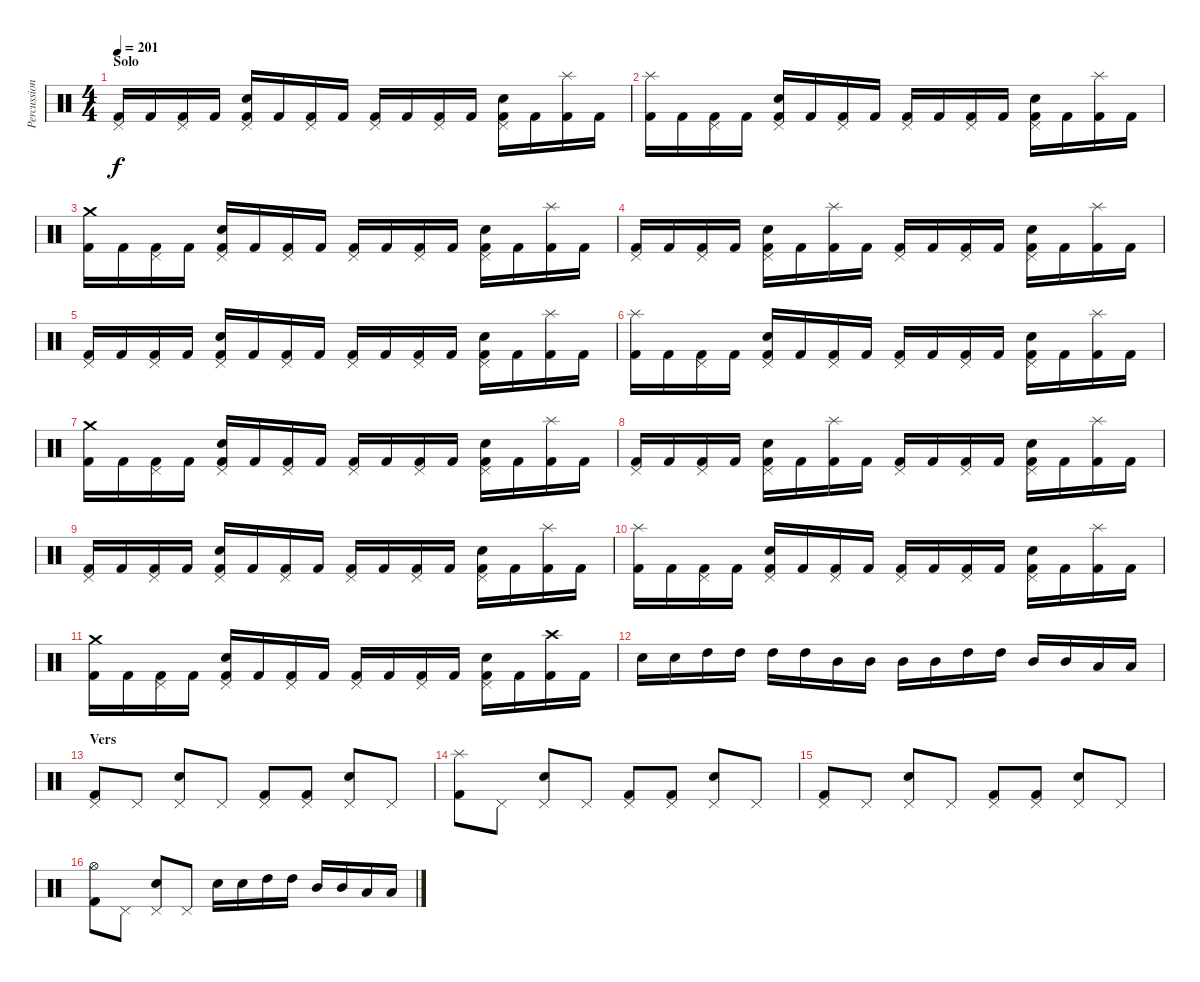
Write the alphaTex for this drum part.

\track ("Percussion" "Percussion") {instrument percussion}
\staff {score}
\articulation defaults
\ts (4 4)
\section ("" "Solo")
\tempo 201
\clef neutral
\ks c
("Pedal Hi-Hat (hit)" "Kick (hit) 2").16{dy f} "Kick (hit) 2".16 ("Pedal Hi-Hat (hit)" "Kick (hit) 2").16 "Kick (hit) 2".16 ("Pedal Hi-Hat (hit)" "Snare (hit) 2" "Kick (hit) 2").16 "Kick (hit) 2".16 ("Pedal Hi-Hat (hit)" "Kick (hit) 2").16 "Kick (hit) 2".16 ("Pedal Hi-Hat (hit)" "Kick (hit) 2").16 "Kick (hit) 2".16 ("Pedal Hi-Hat (hit)" "Kick (hit) 2").16 "Kick (hit) 2".16 ("Pedal Hi-Hat (hit)" "Snare (hit) 2" "Kick (hit) 2").16 "Kick (hit) 2".16 ("Splash (hit)" "Kick (hit) 2").16 "Kick (hit) 2".16 |
("Splash (hit)" "Kick (hit) 2").16 "Kick (hit) 2".16 ("Pedal Hi-Hat (hit)" "Kick (hit) 2").16 "Kick (hit) 2".16 ("Pedal Hi-Hat (hit)" "Snare (hit) 2" "Kick (hit) 2").16 "Kick (hit) 2".16 ("Pedal Hi-Hat (hit)" "Kick (hit) 2").16 "Kick (hit) 2".16 ("Pedal Hi-Hat (hit)" "Kick (hit) 2").16 "Kick (hit) 2".16 ("Pedal Hi-Hat (hit)" "Kick (hit) 2").16 "Kick (hit) 2".16 ("Pedal Hi-Hat (hit)" "Snare (hit) 2" "Kick (hit) 2").16 "Kick (hit) 2".16 ("Splash (hit)" "Kick (hit) 2").16 "Kick (hit) 2".16 |
("Crash medium (hit)" "Kick (hit) 2").16 "Kick (hit) 2".16 ("Pedal Hi-Hat (hit)" "Kick (hit) 2").16 "Kick (hit) 2".16 ("Pedal Hi-Hat (hit)" "Snare (hit) 2" "Kick (hit) 2").16 "Kick (hit) 2".16 ("Pedal Hi-Hat (hit)" "Kick (hit) 2").16 "Kick (hit) 2".16 ("Pedal Hi-Hat (hit)" "Kick (hit) 2").16 "Kick (hit) 2".16 ("Pedal Hi-Hat (hit)" "Kick (hit) 2").16 "Kick (hit) 2".16 ("Pedal Hi-Hat (hit)" "Snare (hit) 2" "Kick (hit) 2").16 "Kick (hit) 2".16 ("Splash (hit)" "Kick (hit) 2").16 "Kick (hit) 2".16 |
("Pedal Hi-Hat (hit)" "Kick (hit) 2").16 "Kick (hit) 2".16 ("Pedal Hi-Hat (hit)" "Kick (hit) 2").16 "Kick (hit) 2".16 ("Pedal Hi-Hat (hit)" "Snare (hit) 2" "Kick (hit) 2").16 "Kick (hit) 2".16 ("Splash (hit)" "Kick (hit) 2").16 "Kick (hit) 2".16 ("Pedal Hi-Hat (hit)" "Kick (hit) 2").16 "Kick (hit) 2".16 ("Pedal Hi-Hat (hit)" "Kick (hit) 2").16 "Kick (hit) 2".16 ("Pedal Hi-Hat (hit)" "Snare (hit) 2" "Kick (hit) 2").16 "Kick (hit) 2".16 ("Splash (hit)" "Kick (hit) 2").16 "Kick (hit) 2".16 |
("Pedal Hi-Hat (hit)" "Kick (hit) 2").16 "Kick (hit) 2".16 ("Pedal Hi-Hat (hit)" "Kick (hit) 2").16 "Kick (hit) 2".16 ("Pedal Hi-Hat (hit)" "Snare (hit) 2" "Kick (hit) 2").16 "Kick (hit) 2".16 ("Pedal Hi-Hat (hit)" "Kick (hit) 2").16 "Kick (hit) 2".16 ("Pedal Hi-Hat (hit)" "Kick (hit) 2").16 "Kick (hit) 2".16 ("Pedal Hi-Hat (hit)" "Kick (hit) 2").16 "Kick (hit) 2".16 ("Pedal Hi-Hat (hit)" "Snare (hit) 2" "Kick (hit) 2").16 "Kick (hit) 2".16 ("Splash (hit)" "Kick (hit) 2").16 "Kick (hit) 2".16 |
("Splash (hit)" "Kick (hit) 2").16 "Kick (hit) 2".16 ("Pedal Hi-Hat (hit)" "Kick (hit) 2").16 "Kick (hit) 2".16 ("Pedal Hi-Hat (hit)" "Snare (hit) 2" "Kick (hit) 2").16 "Kick (hit) 2".16 ("Pedal Hi-Hat (hit)" "Kick (hit) 2").16 "Kick (hit) 2".16 ("Pedal Hi-Hat (hit)" "Kick (hit) 2").16 "Kick (hit) 2".16 ("Pedal Hi-Hat (hit)" "Kick (hit) 2").16 "Kick (hit) 2".16 ("Pedal Hi-Hat (hit)" "Snare (hit) 2" "Kick (hit) 2").16 "Kick (hit) 2".16 ("Splash (hit)" "Kick (hit) 2").16 "Kick (hit) 2".16 |
("Crash medium (hit)" "Kick (hit) 2").16 "Kick (hit) 2".16 ("Pedal Hi-Hat (hit)" "Kick (hit) 2").16 "Kick (hit) 2".16 ("Pedal Hi-Hat (hit)" "Snare (hit) 2" "Kick (hit) 2").16 "Kick (hit) 2".16 ("Pedal Hi-Hat (hit)" "Kick (hit) 2").16 "Kick (hit) 2".16 ("Pedal Hi-Hat (hit)" "Kick (hit) 2").16 "Kick (hit) 2".16 ("Pedal Hi-Hat (hit)" "Kick (hit) 2").16 "Kick (hit) 2".16 ("Pedal Hi-Hat (hit)" "Snare (hit) 2" "Kick (hit) 2").16 "Kick (hit) 2".16 ("Splash (hit)" "Kick (hit) 2").16 "Kick (hit) 2".16 |
("Pedal Hi-Hat (hit)" "Kick (hit) 2").16 "Kick (hit) 2".16 ("Pedal Hi-Hat (hit)" "Kick (hit) 2").16 "Kick (hit) 2".16 ("Pedal Hi-Hat (hit)" "Snare (hit) 2" "Kick (hit) 2").16 "Kick (hit) 2".16 ("Splash (hit)" "Kick (hit) 2").16 "Kick (hit) 2".16 ("Pedal Hi-Hat (hit)" "Kick (hit) 2").16 "Kick (hit) 2".16 ("Pedal Hi-Hat (hit)" "Kick (hit) 2").16 "Kick (hit) 2".16 ("Pedal Hi-Hat (hit)" "Snare (hit) 2" "Kick (hit) 2").16 "Kick (hit) 2".16 ("Splash (hit)" "Kick (hit) 2").16 "Kick (hit) 2".16 |
("Pedal Hi-Hat (hit)" "Kick (hit) 2").16 "Kick (hit) 2".16 ("Pedal Hi-Hat (hit)" "Kick (hit) 2").16 "Kick (hit) 2".16 ("Pedal Hi-Hat (hit)" "Snare (hit) 2" "Kick (hit) 2").16 "Kick (hit) 2".16 ("Pedal Hi-Hat (hit)" "Kick (hit) 2").16 "Kick (hit) 2".16 ("Pedal Hi-Hat (hit)" "Kick (hit) 2").16 "Kick (hit) 2".16 ("Pedal Hi-Hat (hit)" "Kick (hit) 2").16 "Kick (hit) 2".16 ("Pedal Hi-Hat (hit)" "Snare (hit) 2" "Kick (hit) 2").16 "Kick (hit) 2".16 ("Splash (hit)" "Kick (hit) 2").16 "Kick (hit) 2".16 |
("Splash (hit)" "Kick (hit) 2").16 "Kick (hit) 2".16 ("Pedal Hi-Hat (hit)" "Kick (hit) 2").16 "Kick (hit) 2".16 ("Pedal Hi-Hat (hit)" "Snare (hit) 2" "Kick (hit) 2").16 "Kick (hit) 2".16 ("Pedal Hi-Hat (hit)" "Kick (hit) 2").16 "Kick (hit) 2".16 ("Pedal Hi-Hat (hit)" "Kick (hit) 2").16 "Kick (hit) 2".16 ("Pedal Hi-Hat (hit)" "Kick (hit) 2").16 "Kick (hit) 2".16 ("Pedal Hi-Hat (hit)" "Snare (hit) 2" "Kick (hit) 2").16 "Kick (hit) 2".16 ("Splash (hit)" "Kick (hit) 2").16 "Kick (hit) 2".16 |
("Crash medium (hit)" "Kick (hit) 2").16 "Kick (hit) 2".16 ("Pedal Hi-Hat (hit)" "Kick (hit) 2").16 "Kick (hit) 2".16 ("Pedal Hi-Hat (hit)" "Snare (hit) 2" "Kick (hit) 2").16 "Kick (hit) 2".16 ("Pedal Hi-Hat (hit)" "Kick (hit) 2").16 "Kick (hit) 2".16 ("Pedal Hi-Hat (hit)" "Kick (hit) 2").16 "Kick (hit) 2".16 ("Pedal Hi-Hat (hit)" "Kick (hit) 2").16 "Kick (hit) 2".16 ("Pedal Hi-Hat (hit)" "Snare (hit) 2" "Kick (hit) 2").16 "Kick (hit) 2".16 ("Crash high (hit)" "Kick (hit) 2").16 "Kick (hit) 2".16 |
"Snare (hit) 2".16 "Snare (hit) 2".16 "High Tom (hit)".16 "High Tom (hit)".16 "High Tom (hit)".16 "High Tom (hit)".16 "Mid Tom (hit)".16 "Mid Tom (hit)".16 "Mid Tom (hit)".16 "Mid Tom (hit)".16 "High Tom (hit)".16 "High Tom (hit)".16 "Mid Tom (hit)".16 "Mid Tom (hit)".16 "Low Tom (hit)".16 "Low Tom (hit)".16 |
\section ("" "Vers")
("Pedal Hi-Hat (hit)" "Kick (hit) 2").8 "Pedal Hi-Hat (hit)".8 ("Pedal Hi-Hat (hit)" "Snare (hit) 2").8 "Pedal Hi-Hat (hit)".8 ("Pedal Hi-Hat (hit)" "Kick (hit) 2").8 ("Pedal Hi-Hat (hit)" "Kick (hit) 2").8 ("Pedal Hi-Hat (hit)" "Snare (hit) 2").8 "Pedal Hi-Hat (hit)".8 |
("Splash (hit)" "Kick (hit) 2").8 "Pedal Hi-Hat (hit)".8 ("Pedal Hi-Hat (hit)" "Snare (hit) 2").8 "Pedal Hi-Hat (hit)".8 ("Pedal Hi-Hat (hit)" "Kick (hit) 2").8 ("Pedal Hi-Hat (hit)" "Kick (hit) 2").8 ("Pedal Hi-Hat (hit)" "Snare (hit) 2").8 "Pedal Hi-Hat (hit)".8 |
("Pedal Hi-Hat (hit)" "Kick (hit) 2").8 "Pedal Hi-Hat (hit)".8 ("Pedal Hi-Hat (hit)" "Snare (hit) 2").8 "Pedal Hi-Hat (hit)".8 ("Pedal Hi-Hat (hit)" "Kick (hit) 2").8 ("Pedal Hi-Hat (hit)" "Kick (hit) 2").8 ("Pedal Hi-Hat (hit)" "Snare (hit) 2").8 "Pedal Hi-Hat (hit)".8 |
("Hi-Hat (open)" "Kick (hit) 2").8 "Pedal Hi-Hat (hit)".8 ("Pedal Hi-Hat (hit)" "Snare (hit) 2").8 "Pedal Hi-Hat (hit)".8 "Snare (hit) 2".16 "Snare (hit) 2".16 "High Tom (hit)".16 "High Tom (hit)".16 "Mid Tom (hit)".16 "Mid Tom (hit)".16 "Low Tom (hit)".16 "Low Tom (hit)".16
